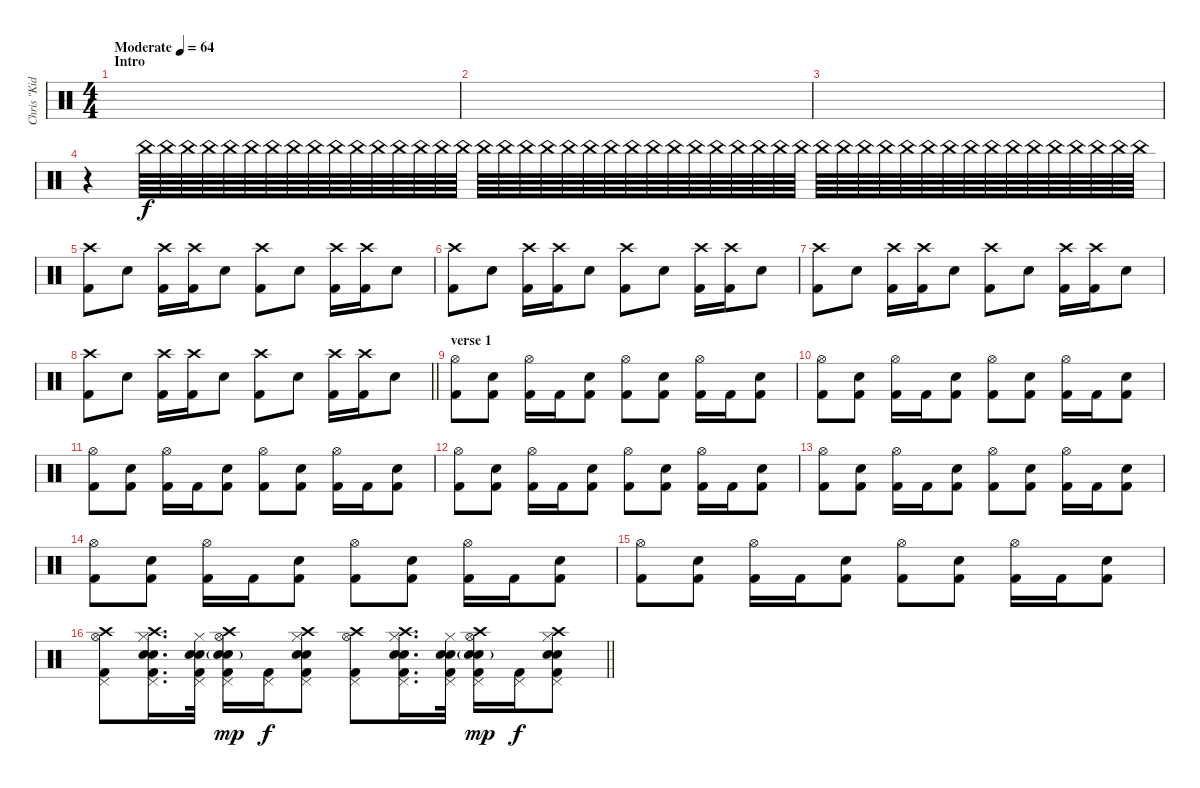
\track ("Chris \"Kid\" Knapp" "Chris \"Kid") {instrument percussion}
\staff {score}
\articulation defaults
\ts (4 4)
\section ("" "Intro")
\tempo (64 "Moderate")
\clef neutral
\ks c
|
|
|
r.4 "China (hit)".64{volume 12} "China (hit)".64 "China (hit)".64 "China (hit)".64 "China (hit)".64 "China (hit)".64 "China (hit)".64 "China (hit)".64 "China (hit)".64 "China (hit)".64 "China (hit)".64 "China (hit)".64 "China (hit)".64 "China (hit)".64 "China (hit)".64 "China (hit)".64 "China (hit)".64 "China (hit)".64 "China (hit)".64 "China (hit)".64 "China (hit)".64 "China (hit)".64 "China (hit)".64 "China (hit)".64 "China (hit)".64 "China (hit)".64 "China (hit)".64 "China (hit)".64 "China (hit)".64 "China (hit)".64 "China (hit)".64 "China (hit)".64 "China (hit)".64 "China (hit)".64 "China (hit)".64 "China (hit)".64 "China (hit)".64 "China (hit)".64 "China (hit)".64 "China (hit)".64 "China (hit)".64 "China (hit)".64 "China (hit)".64 "China (hit)".64 "China (hit)".64 "China (hit)".64 "China (hit)".64 "China (hit)".64 |
("Crash high (hit)" "Kick (hit) 2").8 "Snare (hit) 2".8 ("Crash high (hit)" "Kick (hit) 2").16 ("Crash high (hit)" "Kick (hit) 2").16 "Snare (hit) 2".8 ("Crash high (hit)" "Kick (hit) 2").8 "Snare (hit) 2".8 ("Crash high (hit)" "Kick (hit) 2").16 ("Crash high (hit)" "Kick (hit) 2").16 "Snare (hit) 2".8 |
("Crash high (hit)" "Kick (hit) 2").8 "Snare (hit) 2".8 ("Crash high (hit)" "Kick (hit) 2").16 ("Crash high (hit)" "Kick (hit) 2").16 "Snare (hit) 2".8 ("Crash high (hit)" "Kick (hit) 2").8 "Snare (hit) 2".8 ("Crash high (hit)" "Kick (hit) 2").16 ("Crash high (hit)" "Kick (hit) 2").16 "Snare (hit) 2".8 |
("Crash high (hit)" "Kick (hit) 2").8 "Snare (hit) 2".8 ("Crash high (hit)" "Kick (hit) 2").16 ("Crash high (hit)" "Kick (hit) 2").16 "Snare (hit) 2".8 ("Crash high (hit)" "Kick (hit) 2").8 "Snare (hit) 2".8 ("Crash high (hit)" "Kick (hit) 2").16 ("Crash high (hit)" "Kick (hit) 2").16 "Snare (hit) 2".8 |
\barLineRight lightlight
("Crash high (hit)" "Kick (hit) 2").8 "Snare (hit) 2".8 ("Crash high (hit)" "Kick (hit) 2").16 ("Crash high (hit)" "Kick (hit) 2").16 "Snare (hit) 2".8 ("Crash high (hit)" "Kick (hit) 2").8 "Snare (hit) 2".8 ("Crash high (hit)" "Kick (hit) 2").16 ("Crash high (hit)" "Kick (hit) 2").16 "Snare (hit) 2".8 |
\section ("" "verse 1")
("Hi-Hat (open)" "Kick (hit) 2").8 ("Snare (hit) 2" "Kick (hit) 2").8 ("Hi-Hat (open)" "Kick (hit) 2").16 "Kick (hit) 2".16 ("Snare (hit) 2" "Kick (hit) 2").8 ("Hi-Hat (open)" "Kick (hit) 2").8 ("Snare (hit) 2" "Kick (hit) 2").8 ("Hi-Hat (open)" "Kick (hit) 2").16 "Kick (hit) 2".16 ("Snare (hit) 2" "Kick (hit) 2").8 |
("Hi-Hat (open)" "Kick (hit) 2").8 ("Snare (hit) 2" "Kick (hit) 2").8 ("Hi-Hat (open)" "Kick (hit) 2").16 "Kick (hit) 2".16 ("Snare (hit) 2" "Kick (hit) 2").8 ("Hi-Hat (open)" "Kick (hit) 2").8 ("Snare (hit) 2" "Kick (hit) 2").8 ("Hi-Hat (open)" "Kick (hit) 2").16 "Kick (hit) 2".16 ("Snare (hit) 2" "Kick (hit) 2").8 |
("Hi-Hat (open)" "Kick (hit) 2").8 ("Snare (hit) 2" "Kick (hit) 2").8 ("Hi-Hat (open)" "Kick (hit) 2").16 "Kick (hit) 2".16 ("Snare (hit) 2" "Kick (hit) 2").8 ("Hi-Hat (open)" "Kick (hit) 2").8 ("Snare (hit) 2" "Kick (hit) 2").8 ("Hi-Hat (open)" "Kick (hit) 2").16 "Kick (hit) 2".16 ("Snare (hit) 2" "Kick (hit) 2").8 |
("Hi-Hat (open)" "Kick (hit) 2").8 ("Snare (hit) 2" "Kick (hit) 2").8 ("Hi-Hat (open)" "Kick (hit) 2").16 "Kick (hit) 2".16 ("Snare (hit) 2" "Kick (hit) 2").8 ("Hi-Hat (open)" "Kick (hit) 2").8 ("Snare (hit) 2" "Kick (hit) 2").8 ("Hi-Hat (open)" "Kick (hit) 2").16 "Kick (hit) 2".16 ("Snare (hit) 2" "Kick (hit) 2").8 |
("Hi-Hat (open)" "Kick (hit) 2").8 ("Snare (hit) 2" "Kick (hit) 2").8 ("Hi-Hat (open)" "Kick (hit) 2").16 "Kick (hit) 2".16 ("Snare (hit) 2" "Kick (hit) 2").8 ("Hi-Hat (open)" "Kick (hit) 2").8 ("Snare (hit) 2" "Kick (hit) 2").8 ("Hi-Hat (open)" "Kick (hit) 2").16 "Kick (hit) 2".16 ("Snare (hit) 2" "Kick (hit) 2").8 |
("Hi-Hat (open)" "Kick (hit) 2").8 ("Snare (hit) 2" "Kick (hit) 2").8 ("Hi-Hat (open)" "Kick (hit) 2").16 "Kick (hit) 2".16 ("Snare (hit) 2" "Kick (hit) 2").8 ("Hi-Hat (open)" "Kick (hit) 2").8 ("Snare (hit) 2" "Kick (hit) 2").8 ("Hi-Hat (open)" "Kick (hit) 2").16 "Kick (hit) 2".16 ("Snare (hit) 2" "Kick (hit) 2").8 |
("Hi-Hat (open)" "Kick (hit) 2").8 ("Snare (hit) 2" "Kick (hit) 2").8 ("Hi-Hat (open)" "Kick (hit) 2").16 "Kick (hit) 2".16 ("Snare (hit) 2" "Kick (hit) 2").8 ("Hi-Hat (open)" "Kick (hit) 2").8 ("Snare (hit) 2" "Kick (hit) 2").8 ("Hi-Hat (open)" "Kick (hit) 2").16 "Kick (hit) 2".16 ("Snare (hit) 2" "Kick (hit) 2").8 |
\barLineRight lightlight
("Hi-Hat (open)" "Kick (hit) 2" "Pedal Hi-Hat (hit)" "Crash high (hit)").8 ("Snare (hit) 2" "Snare (hit) 2" "Hi-Hat (closed)" "Kick (hit) 2" "Pedal Hi-Hat (hit)" "Crash high (hit)").16{d} ("Snare (hit) 2" "Snare (hit) 2" "Hi-Hat (closed)" "Kick (hit) 2" "Pedal Hi-Hat (hit)").32 ("Snare (hit) 2"{g} "Snare (hit) 2"{g} "Hi-Hat (open)" "Kick (hit) 2" "Pedal Hi-Hat (hit)" "Crash high (hit)").16{dy mp} ("Kick (hit) 2" "Pedal Hi-Hat (hit)").16{dy f} ("Snare (hit) 2" "Snare (hit) 2" "Hi-Hat (closed)" "Kick (hit) 2" "Pedal Hi-Hat (hit)" "Crash high (hit)").8 ("Hi-Hat (open)" "Kick (hit) 2" "Pedal Hi-Hat (hit)" "Crash high (hit)").8 ("Snare (hit) 2" "Snare (hit) 2" "Hi-Hat (closed)" "Kick (hit) 2" "Pedal Hi-Hat (hit)" "Crash high (hit)").16{d} ("Snare (hit) 2" "Snare (hit) 2" "Hi-Hat (closed)" "Kick (hit) 2" "Pedal Hi-Hat (hit)").32 ("Snare (hit) 2"{g} "Snare (hit) 2"{g} "Hi-Hat (open)" "Kick (hit) 2" "Pedal Hi-Hat (hit)" "Crash high (hit)").16{dy mp} ("Kick (hit) 2" "Pedal Hi-Hat (hit)").16{dy f} ("Snare (hit) 2" "Snare (hit) 2" "Hi-Hat (closed)" "Kick (hit) 2" "Pedal Hi-Hat (hit)" "Crash high (hit)").8
